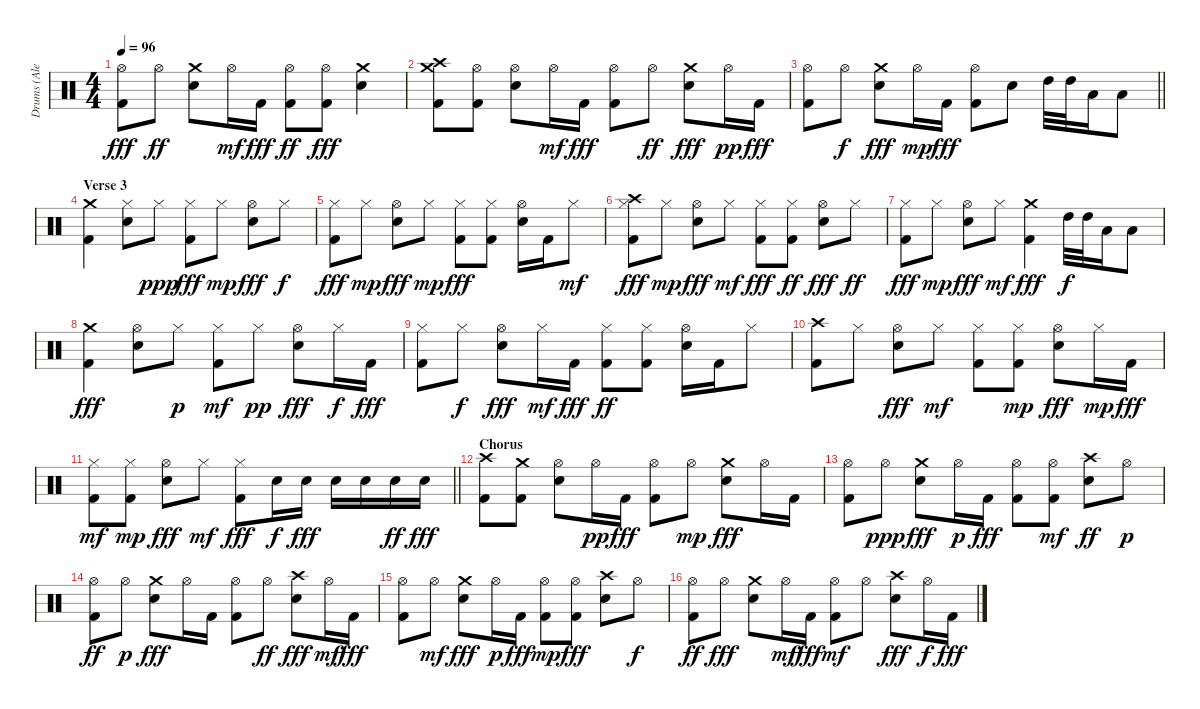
\track ("Drums (Alex Van Halen)" "Drums (Ale") {instrument percussion}
\staff {score}
\articulation defaults
\ts (4 4)
\tempo 96
\clef neutral
\ks c
("Kick (hit) 2" "Hi-Hat (open)").8{dy fff} "Hi-Hat (open)".8{dy ff} ("Snare (hit) 2" "Crash medium (hit)").8 "Hi-Hat (open)".16{dy mf} "Kick (hit) 2".16{dy fff} ("Kick (hit) 2" "Hi-Hat (open)").8{dy ff} ("Hi-Hat (open)" "Kick (hit) 2").8{dy fff} ("Snare (hit) 2" "Crash medium (hit)").4 |
("Crash medium (hit)" "Crash high (hit)" "Kick (hit) 2").8 ("Hi-Hat (open)" "Kick (hit) 2").8 ("Hi-Hat (open)" "Snare (hit) 2").8 "Hi-Hat (open)".16{dy mf} "Kick (hit) 2".16{dy fff} ("Hi-Hat (open)" "Kick (hit) 2").8 "Hi-Hat (open)".8{dy ff} ("Crash medium (hit)" "Snare (hit) 2").8{dy fff} "Hi-Hat (open)".16{dy pp} "Kick (hit) 2".16{dy fff} |
\barLineRight lightlight
("Hi-Hat (open)" "Kick (hit) 2").8 "Hi-Hat (open)".8{dy f} ("Snare (hit) 2" "Crash medium (hit)").8{dy fff} "Hi-Hat (open)".16{dy mp} "Kick (hit) 2".16{dy fff} ("Kick (hit) 2" "Hi-Hat (open)").8 "Snare (hit) 2".8 "High Tom (hit)".32 "High Tom (hit)".32 "Low Tom (hit)".16 "Low Tom (hit)".8 |
\section ("" "Verse 3")
("Kick (hit) 2" "Crash medium (hit)").4 ("Snare (hit) 2" "Hi-Hat (closed)").8 "Hi-Hat (closed)".8{dy ppp} ("Kick (hit) 2" "Hi-Hat (closed)").8{dy fff} "Hi-Hat (closed)".8{dy mp} ("Hi-Hat (open)" "Snare (hit) 2").8{dy fff} "Hi-Hat (closed)".8{dy f} |
("Hi-Hat (closed)" "Kick (hit) 2").8{dy fff} "Hi-Hat (closed)".8{dy mp} ("Hi-Hat (open)" "Snare (hit) 2").8{dy fff} "Hi-Hat (closed)".8{dy mp} ("Kick (hit) 2" "Hi-Hat (closed)").8{dy fff} ("Kick (hit) 2" "Hi-Hat (closed)").8 ("Snare (hit) 2" "Hi-Hat (open)").16 "Kick (hit) 2".16 "Hi-Hat (closed)".8{dy mf} |
("Hi-Hat (closed)" "Crash high (hit)" "Kick (hit) 2").8{dy fff} "Hi-Hat (closed)".8{dy mp} ("Snare (hit) 2" "Hi-Hat (open)").8{dy fff} "Hi-Hat (closed)".8{dy mf} ("Hi-Hat (closed)" "Kick (hit) 2").8{dy fff} ("Hi-Hat (closed)" "Kick (hit) 2").8{dy ff} ("Snare (hit) 2" "Hi-Hat (open)").8{dy fff} "Hi-Hat (closed)".8{dy ff} |
("Hi-Hat (closed)" "Kick (hit) 2").8{dy fff} "Hi-Hat (closed)".8{dy mp} ("Hi-Hat (open)" "Snare (hit) 2").8{dy fff} "Hi-Hat (closed)".8{dy mf} ("Crash medium (hit)" "Kick (hit) 2").4{dy fff} "High Tom (hit)".32{dy f} "High Tom (hit)".32 "Low Tom (hit)".16 "Low Tom (hit)".8 |
("Kick (hit) 2" "Crash medium (hit)").4{dy fff} ("Hi-Hat (open)" "Snare (hit) 2").8 "Hi-Hat (closed)".8{dy p} ("Kick (hit) 2" "Hi-Hat (closed)").8{dy mf} "Hi-Hat (closed)".8{dy pp} ("Hi-Hat (open)" "Snare (hit) 2").8{dy fff} "Hi-Hat (closed)".16{dy f} "Kick (hit) 2".16{dy fff} |
("Hi-Hat (closed)" "Kick (hit) 2").8 "Hi-Hat (closed)".8{dy f} ("Snare (hit) 2" "Hi-Hat (open)").8{dy fff} "Hi-Hat (closed)".16{dy mf} "Kick (hit) 2".16{dy fff} ("Kick (hit) 2" "Hi-Hat (closed)").8{dy ff} ("Hi-Hat (closed)" "Kick (hit) 2").8 ("Snare (hit) 2" "Hi-Hat (open)").16 "Kick (hit) 2".16 "Hi-Hat (closed)".8 |
("Kick (hit) 2" "Crash high (hit)").8 "Hi-Hat (closed)".8 ("Snare (hit) 2" "Hi-Hat (open)").8{dy fff} "Hi-Hat (closed)".8{dy mf} ("Kick (hit) 2" "Hi-Hat (closed)").8 ("Kick (hit) 2" "Hi-Hat (closed)").8{dy mp} ("Hi-Hat (open)" "Snare (hit) 2").8{dy fff} "Hi-Hat (closed)".16{dy mp} "Kick (hit) 2".16{dy fff} |
\barLineRight lightlight
("Kick (hit) 2" "Hi-Hat (closed)").8{dy mf} ("Kick (hit) 2" "Hi-Hat (closed)").8{dy mp} ("Snare (hit) 2" "Hi-Hat (open)").8{dy fff} "Hi-Hat (closed)".8{dy mf} ("Kick (hit) 2" "Hi-Hat (closed)").8{dy fff} "Snare (hit) 2".16{dy f} "Snare (hit) 2".16{dy fff} "Snare (hit) 2".16 "Snare (hit) 2".16 "Snare (hit) 2".16{dy ff} "Snare (hit) 2".16{dy fff} |
\section ("" "Chorus")
("Crash high (hit)" "Kick (hit) 2").8 ("Crash medium (hit)" "Kick (hit) 2").8 ("Hi-Hat (open)" "Snare (hit) 2").8 "Hi-Hat (open)".16{dy pp} "Kick (hit) 2".16{dy fff} ("Kick (hit) 2" "Hi-Hat (open)").8 "Hi-Hat (open)".8{dy mp} ("Snare (hit) 2" "Crash medium (hit)").8{dy fff} "Hi-Hat (open)".16 "Kick (hit) 2".16 |
("Hi-Hat (open)" "Kick (hit) 2").8 "Hi-Hat (open)".8{dy ppp} ("Snare (hit) 2" "Crash medium (hit)").8{dy fff} "Hi-Hat (open)".16{dy p} "Kick (hit) 2".16{dy fff} ("Hi-Hat (open)" "Kick (hit) 2").8 ("Kick (hit) 2" "Hi-Hat (open)").8{dy mf} ("Crash high (hit)" "Snare (hit) 2").8{dy ff} "Hi-Hat (open)".8{dy p} |
("Kick (hit) 2" "Hi-Hat (open)").8{dy ff} "Hi-Hat (open)".8{dy p} ("Crash medium (hit)" "Snare (hit) 2").8{dy fff} "Hi-Hat (open)".16 "Kick (hit) 2".16 ("Kick (hit) 2" "Hi-Hat (open)").8 "Hi-Hat (open)".8{dy ff} ("Crash high (hit)" "Snare (hit) 2").8{dy fff} "Hi-Hat (open)".16{dy mf} "Kick (hit) 2".16{dy fff} |
("Kick (hit) 2" "Hi-Hat (open)").8 "Hi-Hat (open)".8{dy mf} ("Snare (hit) 2" "Crash medium (hit)").8{dy fff} "Hi-Hat (open)".16{dy p} "Kick (hit) 2".16{dy fff} ("Kick (hit) 2" "Hi-Hat (open)").8{dy mp} ("Hi-Hat (open)" "Kick (hit) 2").8{dy fff} ("Crash high (hit)" "Snare (hit) 2").8 "Hi-Hat (open)".8{dy f} |
("Kick (hit) 2" "Hi-Hat (open)").8{dy ff} "Hi-Hat (open)".8{dy fff} ("Crash medium (hit)" "Snare (hit) 2").8 "Hi-Hat (open)".16{dy mf} "Kick (hit) 2".16{dy fff} ("Kick (hit) 2" "Hi-Hat (open)").8{dy mf} "Hi-Hat (open)".8 ("Crash high (hit)" "Snare (hit) 2").8{dy fff} "Hi-Hat (open)".16{dy f} "Kick (hit) 2".16{dy fff}
